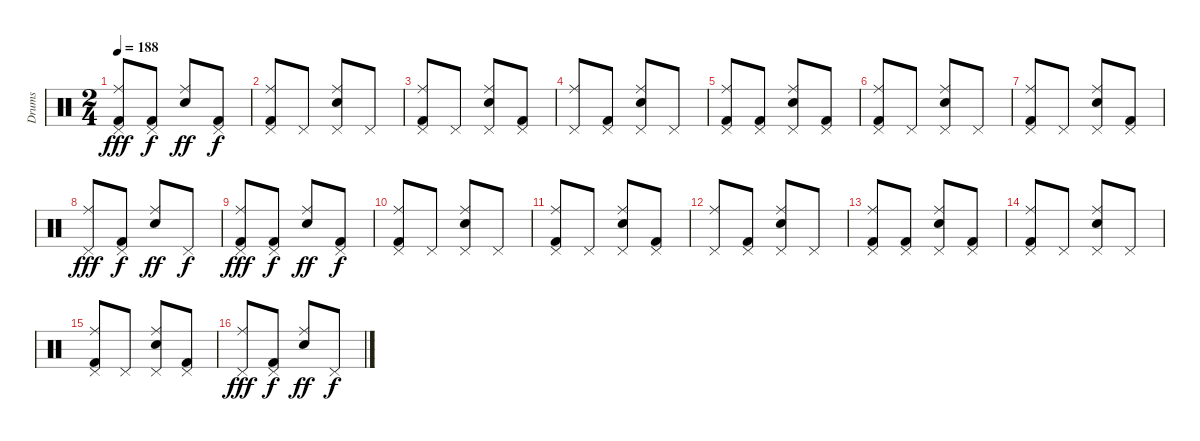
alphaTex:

\track ("Drums" "Drums") {instrument percussion}
\staff {score}
\articulation defaults
\ts (2 4)
\tempo 188
\clef neutral
\ks c
("Ride (middle)" "Pedal Hi-Hat (hit)" "Kick (hit) 2").8{dy fff} ("Pedal Hi-Hat (hit)" "Kick (hit) 2").8{dy f} ("Ride (middle)" "Snare (hit) 2").8{dy ff} ("Pedal Hi-Hat (hit)" "Kick (hit) 2").8{dy f} |
("Ride (middle)" "Pedal Hi-Hat (hit)" "Kick (hit) 2").8 "Pedal Hi-Hat (hit)".8 ("Ride (middle)" "Pedal Hi-Hat (hit)" "Snare (hit) 2").8 "Pedal Hi-Hat (hit)".8 |
("Ride (middle)" "Pedal Hi-Hat (hit)" "Kick (hit) 2").8 "Pedal Hi-Hat (hit)".8 ("Ride (middle)" "Pedal Hi-Hat (hit)" "Snare (hit) 2").8 ("Pedal Hi-Hat (hit)" "Kick (hit) 2").8 |
("Ride (middle)" "Pedal Hi-Hat (hit)").8 ("Pedal Hi-Hat (hit)" "Kick (hit) 2").8 ("Ride (middle)" "Pedal Hi-Hat (hit)" "Snare (hit) 2").8 "Pedal Hi-Hat (hit)".8 |
("Ride (middle)" "Pedal Hi-Hat (hit)" "Kick (hit) 2").8 ("Pedal Hi-Hat (hit)" "Kick (hit) 2").8 ("Ride (middle)" "Pedal Hi-Hat (hit)" "Snare (hit) 2").8 ("Pedal Hi-Hat (hit)" "Kick (hit) 2").8 |
("Ride (middle)" "Pedal Hi-Hat (hit)" "Kick (hit) 2").8 "Pedal Hi-Hat (hit)".8 ("Ride (middle)" "Pedal Hi-Hat (hit)" "Snare (hit) 2").8 "Pedal Hi-Hat (hit)".8 |
("Ride (middle)" "Pedal Hi-Hat (hit)" "Kick (hit) 2").8 "Pedal Hi-Hat (hit)".8 ("Ride (middle)" "Pedal Hi-Hat (hit)" "Snare (hit) 2").8 ("Pedal Hi-Hat (hit)" "Kick (hit) 2").8 |
("Ride (middle)" "Pedal Hi-Hat (hit)").8{dy fff} ("Pedal Hi-Hat (hit)" "Kick (hit) 2").8{dy f} ("Ride (middle)" "Snare (hit) 2").8{dy ff} "Pedal Hi-Hat (hit)".8{dy f} |
("Ride (middle)" "Pedal Hi-Hat (hit)" "Kick (hit) 2").8{dy fff} ("Pedal Hi-Hat (hit)" "Kick (hit) 2").8{dy f} ("Ride (middle)" "Snare (hit) 2").8{dy ff} ("Pedal Hi-Hat (hit)" "Kick (hit) 2").8{dy f} |
("Ride (middle)" "Pedal Hi-Hat (hit)" "Kick (hit) 2").8 "Pedal Hi-Hat (hit)".8 ("Ride (middle)" "Pedal Hi-Hat (hit)" "Snare (hit) 2").8 "Pedal Hi-Hat (hit)".8 |
("Ride (middle)" "Pedal Hi-Hat (hit)" "Kick (hit) 2").8 "Pedal Hi-Hat (hit)".8 ("Ride (middle)" "Pedal Hi-Hat (hit)" "Snare (hit) 2").8 ("Pedal Hi-Hat (hit)" "Kick (hit) 2").8 |
("Ride (middle)" "Pedal Hi-Hat (hit)").8 ("Pedal Hi-Hat (hit)" "Kick (hit) 2").8 ("Ride (middle)" "Pedal Hi-Hat (hit)" "Snare (hit) 2").8 "Pedal Hi-Hat (hit)".8 |
("Ride (middle)" "Pedal Hi-Hat (hit)" "Kick (hit) 2").8 ("Pedal Hi-Hat (hit)" "Kick (hit) 2").8 ("Ride (middle)" "Pedal Hi-Hat (hit)" "Snare (hit) 2").8 ("Pedal Hi-Hat (hit)" "Kick (hit) 2").8 |
("Ride (middle)" "Pedal Hi-Hat (hit)" "Kick (hit) 2").8 "Pedal Hi-Hat (hit)".8 ("Ride (middle)" "Pedal Hi-Hat (hit)" "Snare (hit) 2").8 "Pedal Hi-Hat (hit)".8 |
("Ride (middle)" "Pedal Hi-Hat (hit)" "Kick (hit) 2").8 "Pedal Hi-Hat (hit)".8 ("Ride (middle)" "Pedal Hi-Hat (hit)" "Snare (hit) 2").8 ("Pedal Hi-Hat (hit)" "Kick (hit) 2").8 |
("Ride (middle)" "Pedal Hi-Hat (hit)").8{dy fff} ("Pedal Hi-Hat (hit)" "Kick (hit) 2").8{dy f} ("Ride (middle)" "Snare (hit) 2").8{dy ff} "Pedal Hi-Hat (hit)".8{dy f}
